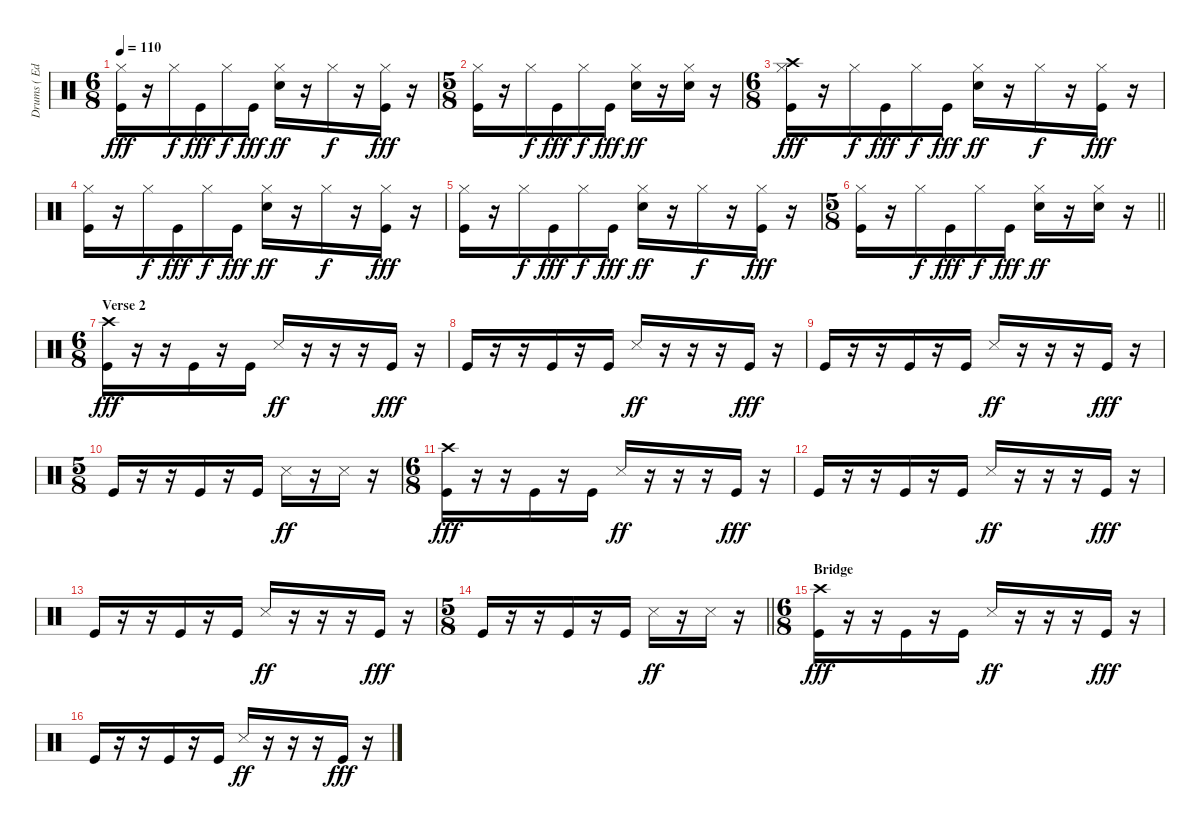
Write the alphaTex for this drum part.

\track ("Drums ( Edward O'Brien )" "Drums ( Ed") {instrument percussion}
\staff {score}
\articulation defaults
\ts (6 8)
\tempo 110
\clef neutral
\ks c
("Hi-Hat (closed)" "Kick (hit)").16{dy fff} r.16 "Hi-Hat (closed)".16{dy f} "Kick (hit)".16{dy fff} "Hi-Hat (closed)".16{dy f} "Kick (hit)".16{dy fff} ("Hi-Hat (closed)" "Electric Snare (hit)").16{dy ff} r.16 "Hi-Hat (closed)".16{dy f} r.16 ("Hi-Hat (closed)" "Kick (hit)").16{dy fff} r.16 |
\ts (5 8)
("Hi-Hat (closed)" "Kick (hit)").16 r.16 "Hi-Hat (closed)".16{dy f} "Kick (hit)".16{dy fff} "Hi-Hat (closed)".16{dy f} "Kick (hit)".16{dy fff} ("Hi-Hat (closed)" "Electric Snare (hit)").16{dy ff} r.16 ("Hi-Hat (closed)" "Electric Snare (hit)").16 r.16 |
\ts (6 8)
("Crash high (hit)" "Hi-Hat (closed)" "Kick (hit)").16{dy fff} r.16 "Hi-Hat (closed)".16{dy f} "Kick (hit)".16{dy fff} "Hi-Hat (closed)".16{dy f} "Kick (hit)".16{dy fff} ("Hi-Hat (closed)" "Electric Snare (hit)").16{dy ff} r.16 "Hi-Hat (closed)".16{dy f} r.16 ("Hi-Hat (closed)" "Kick (hit)").16{dy fff} r.16 |
("Hi-Hat (closed)" "Kick (hit)").16 r.16 "Hi-Hat (closed)".16{dy f} "Kick (hit)".16{dy fff} "Hi-Hat (closed)".16{dy f} "Kick (hit)".16{dy fff} ("Hi-Hat (closed)" "Electric Snare (hit)").16{dy ff} r.16 "Hi-Hat (closed)".16{dy f} r.16 ("Hi-Hat (closed)" "Kick (hit)").16{dy fff} r.16 |
("Hi-Hat (closed)" "Kick (hit)").16 r.16 "Hi-Hat (closed)".16{dy f} "Kick (hit)".16{dy fff} "Hi-Hat (closed)".16{dy f} "Kick (hit)".16{dy fff} ("Hi-Hat (closed)" "Electric Snare (hit)").16{dy ff} r.16 "Hi-Hat (closed)".16{dy f} r.16 ("Hi-Hat (closed)" "Kick (hit)").16{dy fff} r.16 |
\ts (5 8)
\barLineRight lightlight
("Hi-Hat (closed)" "Kick (hit)").16 r.16 "Hi-Hat (closed)".16{dy f} "Kick (hit)".16{dy fff} "Hi-Hat (closed)".16{dy f} "Kick (hit)".16{dy fff} ("Hi-Hat (closed)" "Electric Snare (hit)").16{dy ff} r.16 ("Hi-Hat (closed)" "Electric Snare (hit)").16 r.16 |
\ts (6 8)
\section ("" "Verse 2")
("Crash high (hit)" "Kick (hit)").16{dy fff} r.16 r.16 "Kick (hit)".16 r.16 "Kick (hit)".16 "Snare (side stick) 3".16{dy ff} r.16 r.16 r.16 "Kick (hit)".16{dy fff} r.16 |
"Kick (hit)".16 r.16 r.16 "Kick (hit)".16 r.16 "Kick (hit)".16 "Snare (side stick) 3".16{dy ff} r.16 r.16 r.16 "Kick (hit)".16{dy fff} r.16 |
"Kick (hit)".16 r.16 r.16 "Kick (hit)".16 r.16 "Kick (hit)".16 "Snare (side stick) 3".16{dy ff} r.16 r.16 r.16 "Kick (hit)".16{dy fff} r.16 |
\ts (5 8)
"Kick (hit)".16 r.16 r.16 "Kick (hit)".16 r.16 "Kick (hit)".16 "Snare (side stick) 3".16{dy ff} r.16 "Snare (side stick) 3".16 r.16 |
\ts (6 8)
("Crash high (hit)" "Kick (hit)").16{dy fff} r.16 r.16 "Kick (hit)".16 r.16 "Kick (hit)".16 "Snare (side stick) 3".16{dy ff} r.16 r.16 r.16 "Kick (hit)".16{dy fff} r.16 |
"Kick (hit)".16 r.16 r.16 "Kick (hit)".16 r.16 "Kick (hit)".16 "Snare (side stick) 3".16{dy ff} r.16 r.16 r.16 "Kick (hit)".16{dy fff} r.16 |
"Kick (hit)".16 r.16 r.16 "Kick (hit)".16 r.16 "Kick (hit)".16 "Snare (side stick) 3".16{dy ff} r.16 r.16 r.16 "Kick (hit)".16{dy fff} r.16 |
\ts (5 8)
\barLineRight lightlight "Kick (hit)".16
r.16 r.16 "Kick (hit)".16 r.16 "Kick (hit)".16 "Snare (side stick) 3".16{dy ff} r.16 "Snare (side stick) 3".16 r.16 |
\ts (6 8)
\section ("" "Bridge")
("Crash high (hit)" "Kick (hit)").16{dy fff} r.16 r.16 "Kick (hit)".16 r.16 "Kick (hit)".16 "Snare (side stick) 3".16{dy ff} r.16 r.16 r.16 "Kick (hit)".16{dy fff} r.16 |
"Kick (hit)".16 r.16 r.16 "Kick (hit)".16 r.16 "Kick (hit)".16 "Snare (side stick) 3".16{dy ff} r.16 r.16 r.16 "Kick (hit)".16{dy fff} r.16
